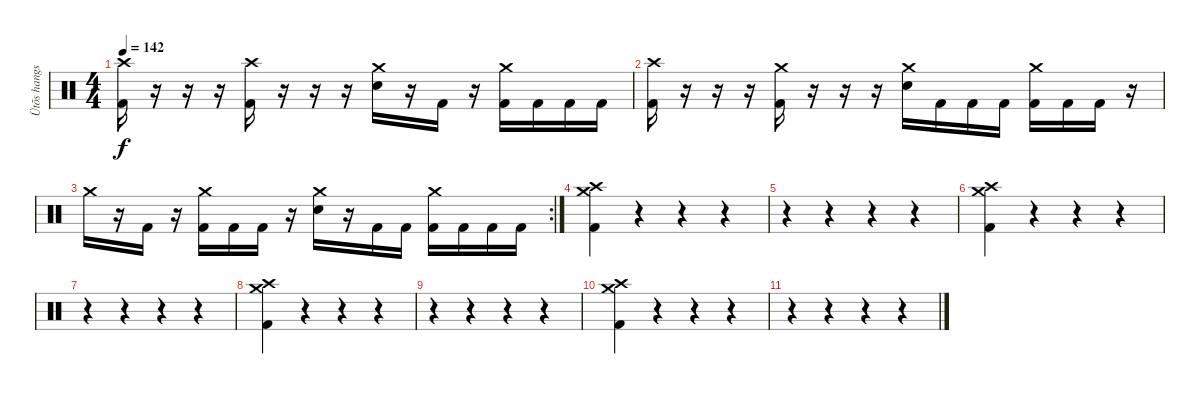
\track ("Ütõs hangszer" "Ütõs hangs") {instrument percussion}
\staff {score}
\articulation defaults
\ts (4 4)
\tempo 142
\clef neutral
\ks c
("Crash high (hit)" "Kick (hit) 2").16{dy f} r.16 r.16 r.16 ("Crash high (hit)" "Kick (hit) 2").16 r.16 r.16 r.16 ("Crash medium (hit)" "Electric Snare (hit)").16 r.16 "Kick (hit) 2".16 r.16 ("Crash medium (hit)" "Kick (hit) 2").16 "Kick (hit) 2".16 "Kick (hit) 2".16 "Kick (hit) 2".16 |
("Crash high (hit)" "Kick (hit) 2").16 r.16 r.16 r.16 ("Crash medium (hit)" "Kick (hit) 2").16 r.16 r.16 r.16 ("Crash medium (hit)" "Electric Snare (hit)").16 "Kick (hit) 2".16 "Kick (hit) 2".16 "Kick (hit) 2".16 ("Crash medium (hit)" "Kick (hit) 2").16 "Kick (hit) 2".16 "Kick (hit) 2".16 r.16 |
\rc 2 "Crash medium (hit)".16
r.16 "Kick (hit) 2".16 r.16 ("Crash medium (hit)" "Kick (hit) 2").16 "Kick (hit) 2".16 "Kick (hit) 2".16 r.16 ("Crash medium (hit)" "Electric Snare (hit)").16 r.16 "Kick (hit) 2".16 "Kick (hit) 2".16 ("Crash medium (hit)" "Kick (hit) 2").16 "Kick (hit) 2".16 "Kick (hit) 2".16 "Kick (hit) 2".16 |
("Crash high (hit)" "Crash medium (hit)" "Kick (hit) 2").4 r.4 r.4 r.4 |
r.4 r.4 r.4 r.4 |
("Crash high (hit)" "Crash medium (hit)" "Kick (hit) 2").4 r.4 r.4 r.4 |
r.4 r.4 r.4 r.4 |
("Crash high (hit)" "Crash medium (hit)" "Kick (hit) 2").4 r.4 r.4 r.4 |
r.4 r.4 r.4 r.4 |
("Crash high (hit)" "Crash medium (hit)" "Kick (hit) 2").4 r.4 r.4 r.4 |
r.4 r.4 r.4 r.4
